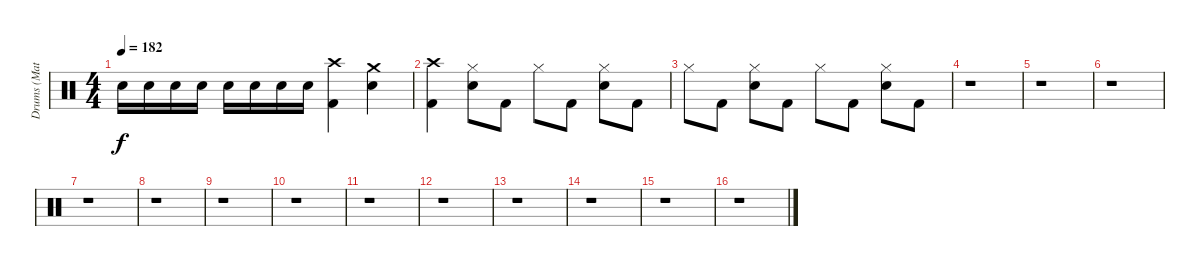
\track ("Drums (Matt)" "Drums (Mat") {instrument percussion}
\staff {score}
\articulation defaults
\ts (4 4)
\tempo 182
\clef neutral
\ks c "Snare (hit) 2".16{dy f} "Snare (hit) 2".16 "Snare (hit) 2".16 "Snare (hit) 2".16 "Snare (hit) 2".16 "Snare (hit) 2".16 "Snare (hit) 2".16 "Snare (hit) 2".16
("Crash high (hit)" "Kick (hit) 2").4 ("Crash medium (hit)" "Snare (hit) 2").4 |
("Crash high (hit)" "Kick (hit) 2").4{volume 2} ("Hi-Hat (closed)" "Snare (hit) 2").8 "Kick (hit) 2".8 "Hi-Hat (closed)".8 "Kick (hit) 2".8 ("Hi-Hat (closed)" "Snare (hit) 2").8 "Kick (hit) 2".8 |
"Hi-Hat (closed)".8 "Kick (hit) 2".8 ("Hi-Hat (closed)" "Snare (hit) 2").8 "Kick (hit) 2".8 "Hi-Hat (closed)".8 "Kick (hit) 2".8 ("Hi-Hat (closed)" "Snare (hit) 2").8 "Kick (hit) 2".8 |
r.1 |
r.1 |
r.1 |
r.1 |
r.1 |
r.1 |
r.1 |
r.1 |
r.1 |
r.1 |
r.1 |
r.1 |
r.1
